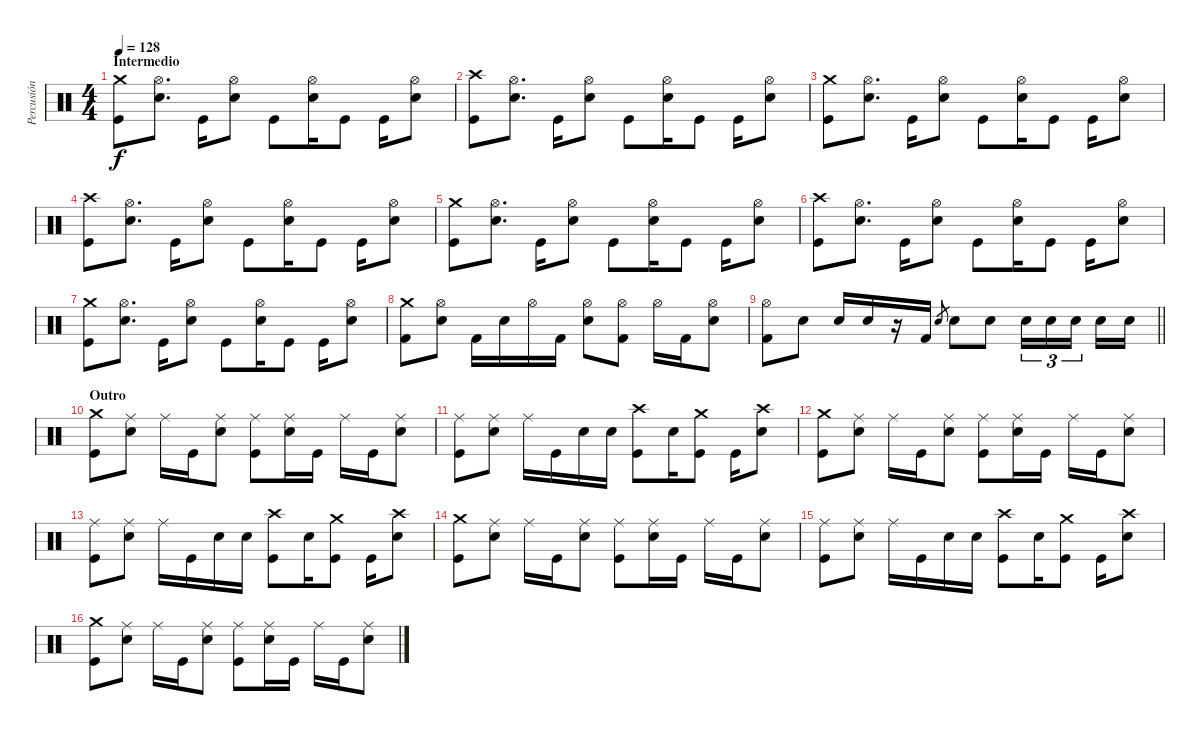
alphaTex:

\track ("Percusión" "Percusión") {instrument percussion}
\staff {score}
\articulation defaults
\ts (4 4)
\section ("" "Intermedio")
\tempo 128
\clef neutral
\ks c
("Crash medium (hit)" "Kick (hit)").8{dy f} ("Hi-Hat (open)" "Snare (hit) 2").8{d} "Kick (hit)".16 ("Hi-Hat (open)" "Snare (hit) 2").8 "Kick (hit)".8 ("Hi-Hat (open)" "Snare (hit) 2").16 "Kick (hit)".8 "Kick (hit)".16 ("Hi-Hat (open)" "Snare (hit) 2").8 |
("Crash high (hit)" "Kick (hit)").8 ("Hi-Hat (open)" "Snare (hit) 2").8{d} "Kick (hit)".16 ("Hi-Hat (open)" "Snare (hit) 2").8 "Kick (hit)".8 ("Hi-Hat (open)" "Snare (hit) 2").16 "Kick (hit)".8 "Kick (hit)".16 ("Hi-Hat (open)" "Snare (hit) 2").8 |
("Crash medium (hit)" "Kick (hit)").8 ("Hi-Hat (open)" "Snare (hit) 2").8{d} "Kick (hit)".16 ("Hi-Hat (open)" "Snare (hit) 2").8 "Kick (hit)".8 ("Hi-Hat (open)" "Snare (hit) 2").16 "Kick (hit)".8 "Kick (hit)".16 ("Hi-Hat (open)" "Snare (hit) 2").8 |
("Crash high (hit)" "Kick (hit)").8 ("Hi-Hat (open)" "Snare (hit) 2").8{d} "Kick (hit)".16 ("Hi-Hat (open)" "Snare (hit) 2").8 "Kick (hit)".8 ("Hi-Hat (open)" "Snare (hit) 2").16 "Kick (hit)".8 "Kick (hit)".16 ("Hi-Hat (open)" "Snare (hit) 2").8 |
("Crash medium (hit)" "Kick (hit)").8 ("Hi-Hat (open)" "Snare (hit) 2").8{d} "Kick (hit)".16 ("Hi-Hat (open)" "Snare (hit) 2").8 "Kick (hit)".8 ("Hi-Hat (open)" "Snare (hit) 2").16 "Kick (hit)".8 "Kick (hit)".16 ("Hi-Hat (open)" "Snare (hit) 2").8 |
("Crash high (hit)" "Kick (hit)").8 ("Hi-Hat (open)" "Snare (hit) 2").8{d} "Kick (hit)".16 ("Hi-Hat (open)" "Snare (hit) 2").8 "Kick (hit)".8 ("Hi-Hat (open)" "Snare (hit) 2").16 "Kick (hit)".8 "Kick (hit)".16 ("Hi-Hat (open)" "Snare (hit) 2").8 |
("Crash medium (hit)" "Kick (hit)").8 ("Hi-Hat (open)" "Snare (hit) 2").8{d} "Kick (hit)".16 ("Hi-Hat (open)" "Snare (hit) 2").8 "Kick (hit)".8 ("Hi-Hat (open)" "Snare (hit) 2").16 "Kick (hit)".8 "Kick (hit)".16 ("Hi-Hat (open)" "Snare (hit) 2").8 |
("Crash medium (hit)" "Kick (hit) 2").8 ("Hi-Hat (open)" "Snare (hit) 2").8 "Kick (hit) 2".16 "Snare (hit) 2".16 "Hi-Hat (open)".16 "Kick (hit) 2".16 ("Hi-Hat (open)" "Snare (hit) 2").8 ("Hi-Hat (open)" "Kick (hit) 2").8 "Hi-Hat (open)".16 "Kick (hit) 2".16 ("Hi-Hat (open)" "Snare (hit) 2").8 |
\barLineRight lightlight
("Hi-Hat (open)" "Kick (hit) 2").8 "Snare (hit) 2".8 "Snare (hit) 2".16 "Snare (hit) 2".16 r.16 "Kick (hit) 2".16 "Snare (hit) 2".8{gr} "Snare (hit) 2".8 "Snare (hit) 2".8 "Snare (hit) 2".16{tu (3 2)} "Snare (hit) 2".16{tu (3 2)} "Snare (hit) 2".16{tu (3 2) beam splitsecondary} "Snare (hit) 2".16 "Snare (hit) 2".16 |
\section ("" "Outro")
("Crash medium (hit)" "Kick (hit)").8 ("Ride (middle)" "Snare (hit) 2").8 "Ride (middle)".16 "Kick (hit)".16 ("Ride (middle)" "Snare (hit) 2").8 ("Ride (middle)" "Kick (hit)").8 ("Ride (middle)" "Snare (hit) 2").16 "Kick (hit)".16 "Ride (middle)".16 "Kick (hit)".16 ("Ride (middle)" "Snare (hit) 2").8 |
("Ride (middle)" "Kick (hit)").8 ("Ride (middle)" "Snare (hit) 2").8 "Ride (middle)".16 "Kick (hit)".16 "Snare (hit) 2".16 "Snare (hit) 2".16 ("Crash high (hit)" "Kick (hit)").8 "Snare (hit) 2".16 ("Crash medium (hit)" "Kick (hit)").8 "Kick (hit)".16 ("Crash high (hit)" "Snare (hit) 2").8 |
("Crash medium (hit)" "Kick (hit)").8 ("Ride (middle)" "Snare (hit) 2").8 "Ride (middle)".16 "Kick (hit)".16 ("Ride (middle)" "Snare (hit) 2").8 ("Ride (middle)" "Kick (hit)").8 ("Ride (middle)" "Snare (hit) 2").16 "Kick (hit)".16 "Ride (middle)".16 "Kick (hit)".16 ("Ride (middle)" "Snare (hit) 2").8 |
("Ride (middle)" "Kick (hit)").8 ("Ride (middle)" "Snare (hit) 2").8 "Ride (middle)".16 "Kick (hit)".16 "Snare (hit) 2".16 "Snare (hit) 2".16 ("Crash high (hit)" "Kick (hit)").8 "Snare (hit) 2".16 ("Crash medium (hit)" "Kick (hit)").8 "Kick (hit)".16 ("Crash high (hit)" "Snare (hit) 2").8 |
("Crash medium (hit)" "Kick (hit)").8 ("Ride (middle)" "Snare (hit) 2").8 "Ride (middle)".16 "Kick (hit)".16 ("Ride (middle)" "Snare (hit) 2").8 ("Ride (middle)" "Kick (hit)").8 ("Ride (middle)" "Snare (hit) 2").16 "Kick (hit)".16 "Ride (middle)".16 "Kick (hit)".16 ("Ride (middle)" "Snare (hit) 2").8 |
("Ride (middle)" "Kick (hit)").8 ("Ride (middle)" "Snare (hit) 2").8 "Ride (middle)".16 "Kick (hit)".16 "Snare (hit) 2".16 "Snare (hit) 2".16 ("Crash high (hit)" "Kick (hit)").8 "Snare (hit) 2".16 ("Crash medium (hit)" "Kick (hit)").8 "Kick (hit)".16 ("Crash high (hit)" "Snare (hit) 2").8 |
("Crash medium (hit)" "Kick (hit)").8 ("Ride (middle)" "Snare (hit) 2").8 "Ride (middle)".16 "Kick (hit)".16 ("Ride (middle)" "Snare (hit) 2").8 ("Ride (middle)" "Kick (hit)").8 ("Ride (middle)" "Snare (hit) 2").16 "Kick (hit)".16 "Ride (middle)".16 "Kick (hit)".16 ("Ride (middle)" "Snare (hit) 2").8
